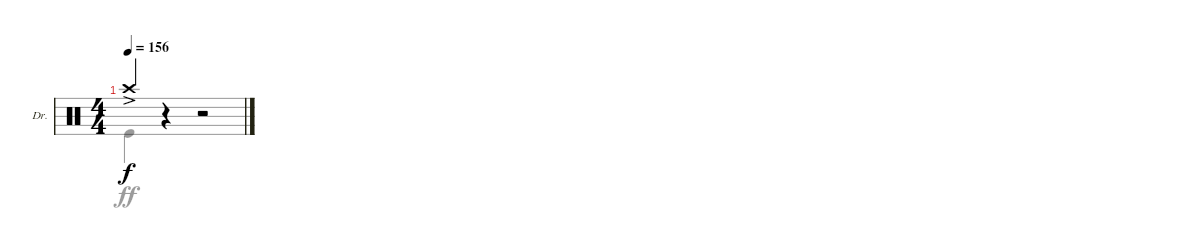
\defaultSystemsLayout 4
\bracketExtendMode groupsimilarinstruments
\firstSystemTrackNameOrientation horizontal
\otherSystemsTrackNameOrientation horizontal
\track ("Drums" "Dr.") {instrument percussion}
\staff {score}
\articulation defaults
\voice
\ts (4 4)
\tempo 156
\clef neutral
\ks c "Crash high (hit)"{ac}.4{dy f}
r.4 r.2
\voice
\clef neutral
\ottava regular
\simile none
\ks c "Kick (hit)".4{dy ff}
